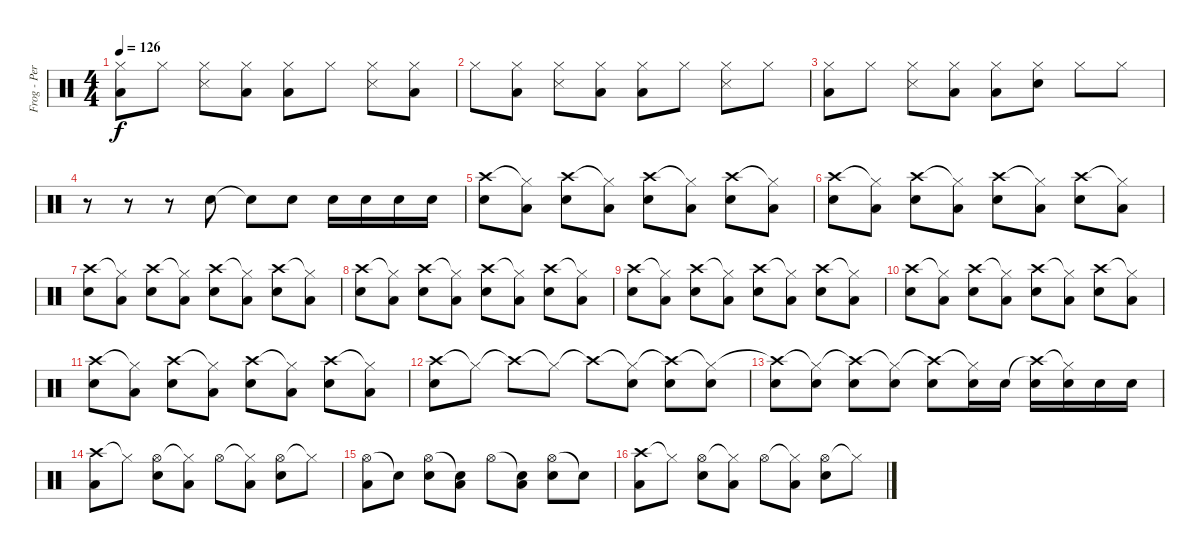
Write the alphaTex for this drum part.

\track ("Frog - Percussions" "Frog - Per") {instrument percussion}
\staff {score}
\articulation defaults
\ts (4 4)
\tempo 126
\clef neutral
\ks c
("Hi-Hat (closed)" "Low Floor Tom (hit)").8{dy f} "Hi-Hat (closed)".8 ("Hi-Hat (closed)" "Snare (side stick) 3").8 ("Hi-Hat (closed)" "Low Floor Tom (hit)").8 ("Hi-Hat (closed)" "Low Floor Tom (hit)").8 "Hi-Hat (closed)".8 ("Hi-Hat (closed)" "Snare (side stick) 3").8 ("Hi-Hat (closed)" "Low Floor Tom (hit)").8 |
"Hi-Hat (closed)".8 ("Hi-Hat (closed)" "Low Floor Tom (hit)").8 ("Hi-Hat (closed)" "Snare (side stick) 3").8 ("Hi-Hat (closed)" "Low Floor Tom (hit)").8 ("Hi-Hat (closed)" "Low Floor Tom (hit)").8 "Hi-Hat (closed)".8 ("Hi-Hat (closed)" "Snare (side stick) 3").8 "Hi-Hat (closed)".8 |
("Hi-Hat (closed)" "Low Floor Tom (hit)").8 "Hi-Hat (closed)".8 ("Hi-Hat (closed)" "Snare (side stick) 3").8 ("Hi-Hat (closed)" "Low Floor Tom (hit)").8 ("Hi-Hat (closed)" "Low Floor Tom (hit)").8 ("Hi-Hat (closed)" "Snare (hit) 2").8 "Hi-Hat (closed)".8 "Hi-Hat (closed)".8 |
r.8 r.8 r.8 "Snare (hit) 2".8 "Snare (hit)"{t}.8 "Snare (hit) 2".8 "Snare (hit) 2".16 "Snare (hit) 2".16 "Snare (hit) 2".16 "Snare (hit) 2".16 |
("Crash high (hit)" "Snare (hit) 2").8 ("Hi-Hat (closed)"{t} "Low Floor Tom (hit)").8 ("Crash high (hit)" "Snare (hit) 2").8 ("Hi-Hat (closed)"{t} "Low Floor Tom (hit)").8 ("Crash high (hit)" "Snare (hit) 2").8 ("Hi-Hat (closed)"{t} "Low Floor Tom (hit)").8 ("Crash high (hit)" "Snare (hit) 2").8 ("Hi-Hat (closed)"{t} "Low Floor Tom (hit)").8 |
("Crash high (hit)" "Snare (hit) 2").8 ("Hi-Hat (closed)"{t} "Low Floor Tom (hit)").8 ("Crash high (hit)" "Snare (hit) 2").8 ("Hi-Hat (closed)"{t} "Low Floor Tom (hit)").8 ("Crash high (hit)" "Snare (hit) 2").8 ("Hi-Hat (closed)"{t} "Low Floor Tom (hit)").8 ("Crash high (hit)" "Snare (hit) 2").8 ("Hi-Hat (closed)"{t} "Low Floor Tom (hit)").8 |
("Crash high (hit)" "Snare (hit) 2").8 ("Hi-Hat (closed)"{t} "Low Floor Tom (hit)").8 ("Crash high (hit)" "Snare (hit) 2").8 ("Hi-Hat (closed)"{t} "Low Floor Tom (hit)").8 ("Crash high (hit)" "Snare (hit) 2").8 ("Hi-Hat (closed)"{t} "Low Floor Tom (hit)").8 ("Crash high (hit)" "Snare (hit) 2").8 ("Hi-Hat (closed)"{t} "Low Floor Tom (hit)").8 |
("Crash high (hit)" "Snare (hit) 2").8 ("Hi-Hat (closed)"{t} "Low Floor Tom (hit)").8 ("Crash high (hit)" "Snare (hit) 2").8 ("Hi-Hat (closed)"{t} "Low Floor Tom (hit)").8 ("Crash high (hit)" "Snare (hit) 2").8 ("Hi-Hat (closed)"{t} "Low Floor Tom (hit)").8 ("Crash high (hit)" "Snare (hit) 2").8 ("Hi-Hat (closed)"{t} "Low Floor Tom (hit)").8 |
("Crash high (hit)" "Snare (hit) 2").8 ("Hi-Hat (closed)"{t} "Low Floor Tom (hit)").8 ("Crash high (hit)" "Snare (hit) 2").8 ("Hi-Hat (closed)"{t} "Low Floor Tom (hit)").8 ("Crash high (hit)" "Snare (hit) 2").8 ("Hi-Hat (closed)"{t} "Low Floor Tom (hit)").8 ("Crash high (hit)" "Snare (hit) 2").8 ("Hi-Hat (closed)"{t} "Low Floor Tom (hit)").8 |
("Crash high (hit)" "Snare (hit) 2").8 ("Hi-Hat (closed)"{t} "Low Floor Tom (hit)").8 ("Crash high (hit)" "Snare (hit) 2").8 ("Hi-Hat (closed)"{t} "Low Floor Tom (hit)").8 ("Crash high (hit)" "Snare (hit) 2").8 ("Hi-Hat (closed)"{t} "Low Floor Tom (hit)").8 ("Crash high (hit)" "Snare (hit) 2").8 ("Hi-Hat (closed)"{t} "Low Floor Tom (hit)").8 |
("Crash high (hit)" "Snare (hit) 2").8 ("Hi-Hat (closed)"{t} "Low Floor Tom (hit)").8 ("Crash high (hit)" "Snare (hit) 2").8 ("Hi-Hat (closed)"{t} "Low Floor Tom (hit)").8 ("Crash high (hit)" "Snare (hit) 2").8 ("Hi-Hat (closed)"{t} "Low Floor Tom (hit)").8 ("Crash high (hit)" "Snare (hit) 2").8 ("Hi-Hat (closed)"{t} "Low Floor Tom (hit)").8 |
("Crash high (hit)" "Snare (hit) 2").8 "Hi-Hat (closed)"{t}.8 "Crash high (hit)"{t}.8 "Hi-Hat (closed)"{t}.8 "Crash high (hit)"{t}.8 ("Hi-Hat (closed)"{t} "Snare (hit) 2").8 ("Crash high (hit)"{t} "Snare (hit) 2").8 ("Hi-Hat (closed)"{t} "Snare (hit) 2").8 |
("Crash high (hit)"{t} "Snare (hit) 2").8 ("Hi-Hat (closed)"{t} "Snare (hit) 2").8 ("Crash high (hit)"{t} "Snare (hit) 2").8 ("Hi-Hat (closed)"{t} "Snare (hit) 2").8 ("Crash high (hit)"{t} "Snare (hit) 2").8 ("Hi-Hat (closed)"{t} "Snare (hit) 2").16 "Snare (hit) 2".16 ("Crash high (hit)"{t} "Snare (hit) 2").16 ("Hi-Hat (closed)"{t} "Snare (hit) 2").16 "Snare (hit) 2".16 "Snare (hit) 2".16 |
("Crash high (hit)" "Low Floor Tom (hit)").8 "Hi-Hat (closed)"{t}.8 ("Hi-Hat (open)" "Snare (hit) 2").8 ("Hi-Hat (closed)"{t} "Low Floor Tom (hit)").8 "Hi-Hat (open)".8 ("Hi-Hat (closed)"{t} "Low Floor Tom (hit)").8 ("Hi-Hat (open)" "Snare (hit) 2").8 "Hi-Hat (closed)"{t}.8 |
("Hi-Hat (open)" "Low Floor Tom (hit)").8 "Snare (hit)"{t}.8 ("Hi-Hat (open)" "Snare (hit) 2").8 ("Snare (hit)"{t} "Low Floor Tom (hit)").8 "Hi-Hat (open)".8 ("Snare (hit)"{t} "Low Floor Tom (hit)").8 ("Hi-Hat (open)" "Snare (hit) 2").8 "Snare (hit)"{t}.8 |
("Crash high (hit)" "Low Floor Tom (hit)").8 "Hi-Hat (closed)"{t}.8 ("Hi-Hat (open)" "Snare (hit) 2").8 ("Hi-Hat (closed)"{t} "Low Floor Tom (hit)").8 "Hi-Hat (open)".8 ("Hi-Hat (closed)"{t} "Low Floor Tom (hit)").8 ("Hi-Hat (open)" "Snare (hit) 2").8 "Hi-Hat (closed)"{t}.8
